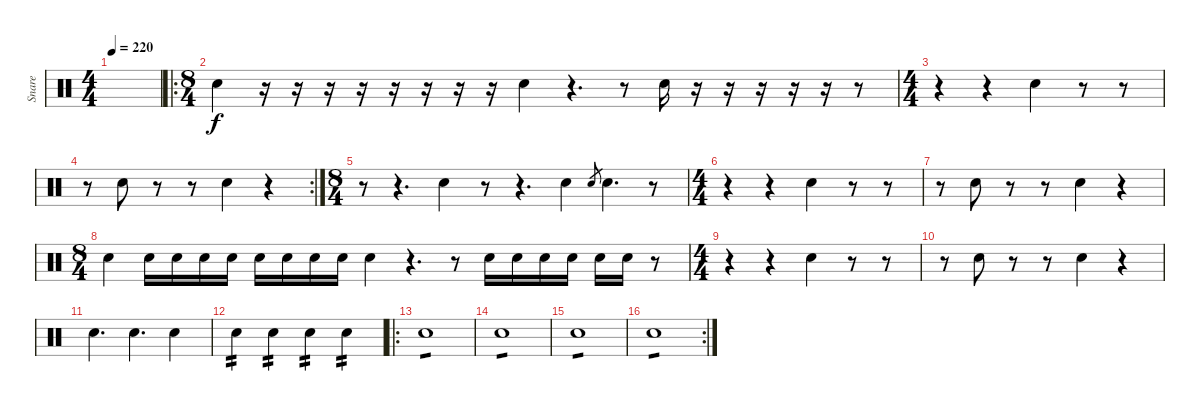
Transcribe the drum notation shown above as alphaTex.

\track ("Snare" "Snare") {instrument percussion}
\staff {score}
\articulation defaults
\ts (4 4)
\tempo 220
\clef neutral
\ks c
|
\ro
\ts (8 4)
"Electric Snare (hit)".4 r.16 r.16 r.16 r.16 r.16 r.16 r.16 r.16 "Electric Snare (hit)".4 r.4{d} r.8 "Electric Snare (hit)".16 r.16 r.16 r.16 r.16 r.16 r.8 |
\ts (4 4)
r.4 r.4 "Electric Snare (hit)".4 r.8 r.8 |
\rc 2
r.8 "Electric Snare (hit)".8 r.8 r.8 "Electric Snare (hit)".4 r.4 |
\ts (8 4)
r.8 r.4{d} "Electric Snare (hit)".4 r.8 r.4{d} "Electric Snare (hit)".4 "Electric Snare (hit)".8{gr} "Electric Snare (hit)".4{d} r.8 |
\ts (4 4)
r.4 r.4 "Electric Snare (hit)".4 r.8 r.8 |
r.8 "Electric Snare (hit)".8 r.8 r.8 "Electric Snare (hit)".4 r.4 |
\ts (8 4)
"Electric Snare (hit)".4 "Electric Snare (hit)".16 "Electric Snare (hit)".16 "Electric Snare (hit)".16 "Electric Snare (hit)".16 "Electric Snare (hit)".16 "Electric Snare (hit)".16 "Electric Snare (hit)".16 "Electric Snare (hit)".16 "Electric Snare (hit)".4 r.4{d} r.8 "Electric Snare (hit)".16 "Electric Snare (hit)".16 "Electric Snare (hit)".16 "Electric Snare (hit)".16 "Electric Snare (hit)".16 "Electric Snare (hit)".16 r.8 |
\ts (4 4)
r.4 r.4 "Electric Snare (hit)".4 r.8 r.8 |
r.8 "Electric Snare (hit)".8 r.8 r.8 "Electric Snare (hit)".4 r.4 |
"Electric Snare (hit)".4{d} "Electric Snare (hit)".4{d} "Electric Snare (hit)".4 |
"Electric Snare (hit)".4{tp 2} "Electric Snare (hit)".4{tp 2} "Electric Snare (hit)".4{tp 2} "Electric Snare (hit)".4{tp 2} |
\ro "Electric Snare (hit)".1{tp 1}
|
"Electric Snare (hit)".1{tp 1} |
"Electric Snare (hit)".1{tp 1} |
\rc 2 "Electric Snare (hit)".1{tp 1}
